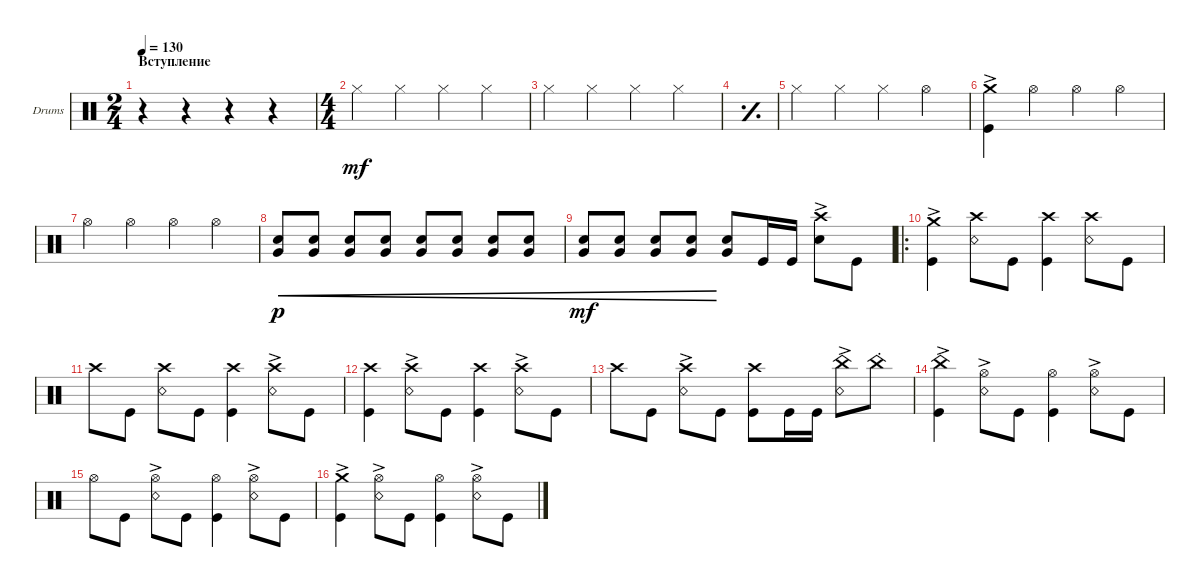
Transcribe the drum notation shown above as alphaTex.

\defaultSystemsLayout 4
\bracketExtendMode groupsimilarinstruments
\firstSystemTrackNameOrientation horizontal
\otherSystemsTrackNameOrientation horizontal
\track ("Drumkit" "Drums") {instrument percussion}
\staff {score}
\articulation defaults
\ts (2 4)
\section ("" "Вступление")
\tempo 130
\clef neutral
\ks c
r.4{dy mf} r.4 r.4 r.4 |
\ts (4 4)
"Hi-Hat (closed)".4 "Hi-Hat (closed)".4 "Hi-Hat (closed)".4 "Hi-Hat (closed)".4 |
"Hi-Hat (closed)".4 "Hi-Hat (closed)".4 "Hi-Hat (closed)".4 "Hi-Hat (closed)".4 |
\simile simple
|
\simile none "Hi-Hat (closed)".4 "Hi-Hat (closed)".4 "Hi-Hat (closed)".4 "Hi-Hat (open)".4
|
("Crash medium (hit)"{ac} "Kick (hit)").4 "Hi-Hat (open)".4 "Hi-Hat (open)".4 "Hi-Hat (open)".4 |
"Hi-Hat (open)".4 "Hi-Hat (open)".4 "Hi-Hat (open)".4 "Hi-Hat (open)".4 |
("Snare (hit) 2" "Very Low Tom (hit)").8{cre dy p} ("Snare (hit) 2" "Very Low Tom (hit)").8{cre} ("Snare (hit) 2" "Very Low Tom (hit)").8{cre} ("Snare (hit) 2" "Very Low Tom (hit)").8{cre} ("Snare (hit) 2" "Very Low Tom (hit)").8{cre} ("Snare (hit) 2" "Very Low Tom (hit)").8{cre} ("Snare (hit) 2" "Very Low Tom (hit)").8{cre} ("Snare (hit) 2" "Very Low Tom (hit)").8{cre} |
("Snare (hit) 2" "Very Low Tom (hit)").8{cre dy mf} ("Snare (hit) 2" "Very Low Tom (hit)").8{cre} ("Snare (hit) 2" "Very Low Tom (hit)").8{cre} ("Snare (hit) 2" "Very Low Tom (hit)").8{cre} ("Snare (hit) 2" "Very Low Tom (hit)").8 "Kick (hit)".16 "Kick (hit)".16 ("Snare (hit) 2"{ac} "Crash high (hit)").8 "Kick (hit)".8 |
\ro
("Crash medium (hit)"{ac} "Kick (hit)").4 ("Crash high (hit)" "Snare (rim shot)").8 "Kick (hit)".8 ("Kick (hit)" "Crash high (hit)").4 ("Crash high (hit)" "Snare (rim shot)").8 "Kick (hit)".8 |
"Crash high (hit)".8 "Kick (hit)".8 ("Crash high (hit)" "Snare (rim shot)").8 "Kick (hit)".8 ("Crash high (hit)" "Kick (hit)").4 ("Crash high (hit)" "Snare (rim shot)"{ac}).8 "Kick (hit)".8 |
("Crash high (hit)" "Kick (hit)").4 ("Crash high (hit)" "Snare (rim shot)"{ac}).8 "Kick (hit)".8 ("Crash high (hit)" "Kick (hit)").4 ("Crash high (hit)" "Snare (rim shot)"{ac}).8 "Kick (hit)".8 |
"Crash high (hit)".8 "Kick (hit)".8 ("Crash high (hit)" "Snare (rim shot)"{ac}).8 "Kick (hit)".8 ("Crash high (hit)" "Kick (hit)").8 "Kick (hit)".16 "Kick (hit)".16 ("China (hit)" "Snare (rim shot)"{ac}).8 "China (hit)"{st}.8 |
("Kick (hit)" "China (hit)"{ac}).4 ("Snare (rim shot)"{ac} "Hi-Hat (open)").8 "Kick (hit)".8 ("Kick (hit)" "Hi-Hat (open)").4 ("Snare (rim shot)"{ac} "Hi-Hat (open)").8 "Kick (hit)".8 |
"Hi-Hat (open)".8 "Kick (hit)".8 ("Snare (rim shot)"{ac} "Hi-Hat (open)").8 "Kick (hit)".8 ("Kick (hit)" "Hi-Hat (open)").4 ("Snare (rim shot)"{ac} "Hi-Hat (open)").8 "Kick (hit)".8 |
("Kick (hit)" "Crash medium (hit)"{ac}).4 ("Snare (rim shot)"{ac} "Hi-Hat (open)").8 "Kick (hit)".8 ("Kick (hit)" "Hi-Hat (open)").4 ("Snare (rim shot)"{ac} "Hi-Hat (open)").8 "Kick (hit)".8
